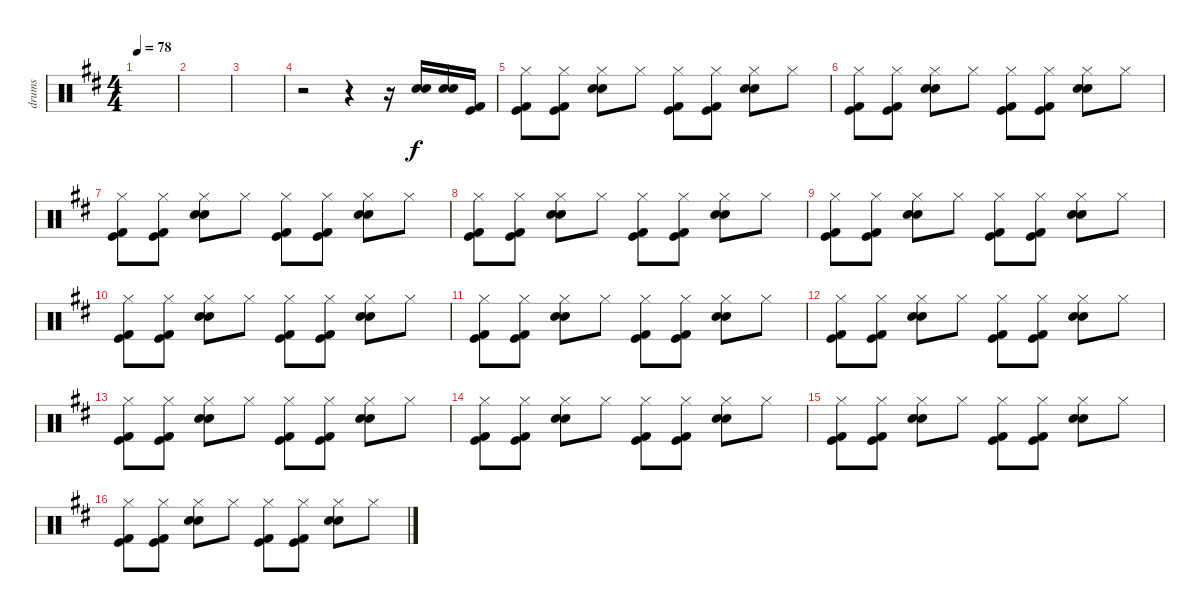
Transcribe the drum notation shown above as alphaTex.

\track ("drums" "drums") {instrument percussion}
\staff {score}
\articulation defaults
\ts (4 4)
\tempo 78
\clef neutral
\ks d
|
|
|
r.2 r.4 r.16 ("Snare (hit) 2" "Electric Snare (hit)").16 ("Snare (hit) 2" "Electric Snare (hit)").16 ("Kick (hit) 2" "Kick (hit)").16 |
("Kick (hit)" "Kick (hit) 2" "Hi-Hat (closed)").8 ("Kick (hit)" "Kick (hit) 2" "Hi-Hat (closed)").8 ("Electric Snare (hit)" "Snare (hit) 2" "Hi-Hat (closed)").8 "Hi-Hat (closed)".8 ("Kick (hit)" "Kick (hit) 2" "Hi-Hat (closed)").8 ("Kick (hit)" "Kick (hit) 2" "Hi-Hat (closed)").8 ("Electric Snare (hit)" "Snare (hit) 2" "Hi-Hat (closed)").8 "Hi-Hat (closed)".8 |
("Kick (hit)" "Kick (hit) 2" "Hi-Hat (closed)").8 ("Kick (hit)" "Kick (hit) 2" "Hi-Hat (closed)").8 ("Electric Snare (hit)" "Snare (hit) 2" "Hi-Hat (closed)").8 "Hi-Hat (closed)".8 ("Kick (hit)" "Kick (hit) 2" "Hi-Hat (closed)").8 ("Kick (hit)" "Kick (hit) 2" "Hi-Hat (closed)").8 ("Electric Snare (hit)" "Snare (hit) 2" "Hi-Hat (closed)").8 "Hi-Hat (closed)".8 |
("Kick (hit)" "Kick (hit) 2" "Hi-Hat (closed)").8 ("Kick (hit)" "Kick (hit) 2" "Hi-Hat (closed)").8 ("Electric Snare (hit)" "Snare (hit) 2" "Hi-Hat (closed)").8 "Hi-Hat (closed)".8 ("Kick (hit)" "Kick (hit) 2" "Hi-Hat (closed)").8 ("Kick (hit)" "Kick (hit) 2" "Hi-Hat (closed)").8 ("Electric Snare (hit)" "Snare (hit) 2" "Hi-Hat (closed)").8 "Hi-Hat (closed)".8 |
("Kick (hit)" "Kick (hit) 2" "Hi-Hat (closed)").8 ("Kick (hit)" "Kick (hit) 2" "Hi-Hat (closed)").8 ("Electric Snare (hit)" "Snare (hit) 2" "Hi-Hat (closed)").8 "Hi-Hat (closed)".8 ("Kick (hit)" "Kick (hit) 2" "Hi-Hat (closed)").8 ("Kick (hit)" "Kick (hit) 2" "Hi-Hat (closed)").8 ("Electric Snare (hit)" "Snare (hit) 2" "Hi-Hat (closed)").8 "Hi-Hat (closed)".8 |
("Kick (hit)" "Kick (hit) 2" "Hi-Hat (closed)").8 ("Kick (hit)" "Kick (hit) 2" "Hi-Hat (closed)").8 ("Electric Snare (hit)" "Snare (hit) 2" "Hi-Hat (closed)").8 "Hi-Hat (closed)".8 ("Kick (hit)" "Kick (hit) 2" "Hi-Hat (closed)").8 ("Kick (hit)" "Kick (hit) 2" "Hi-Hat (closed)").8 ("Electric Snare (hit)" "Snare (hit) 2" "Hi-Hat (closed)").8 "Hi-Hat (closed)".8 |
("Kick (hit)" "Kick (hit) 2" "Hi-Hat (closed)").8 ("Kick (hit)" "Kick (hit) 2" "Hi-Hat (closed)").8 ("Electric Snare (hit)" "Snare (hit) 2" "Hi-Hat (closed)").8 "Hi-Hat (closed)".8 ("Kick (hit)" "Kick (hit) 2" "Hi-Hat (closed)").8 ("Kick (hit)" "Kick (hit) 2" "Hi-Hat (closed)").8 ("Electric Snare (hit)" "Snare (hit) 2" "Hi-Hat (closed)").8 "Hi-Hat (closed)".8 |
("Kick (hit)" "Kick (hit) 2" "Hi-Hat (closed)").8 ("Kick (hit)" "Kick (hit) 2" "Hi-Hat (closed)").8 ("Electric Snare (hit)" "Snare (hit) 2" "Hi-Hat (closed)").8 "Hi-Hat (closed)".8 ("Kick (hit)" "Kick (hit) 2" "Hi-Hat (closed)").8 ("Kick (hit)" "Kick (hit) 2" "Hi-Hat (closed)").8 ("Electric Snare (hit)" "Snare (hit) 2" "Hi-Hat (closed)").8 "Hi-Hat (closed)".8 |
("Kick (hit)" "Kick (hit) 2" "Hi-Hat (closed)").8 ("Kick (hit)" "Kick (hit) 2" "Hi-Hat (closed)").8 ("Electric Snare (hit)" "Snare (hit) 2" "Hi-Hat (closed)").8 "Hi-Hat (closed)".8 ("Kick (hit)" "Kick (hit) 2" "Hi-Hat (closed)").8 ("Kick (hit)" "Kick (hit) 2" "Hi-Hat (closed)").8 ("Electric Snare (hit)" "Snare (hit) 2" "Hi-Hat (closed)").8 "Hi-Hat (closed)".8 |
("Kick (hit)" "Kick (hit) 2" "Hi-Hat (closed)").8 ("Kick (hit)" "Kick (hit) 2" "Hi-Hat (closed)").8 ("Electric Snare (hit)" "Snare (hit) 2" "Hi-Hat (closed)").8 "Hi-Hat (closed)".8 ("Kick (hit)" "Kick (hit) 2" "Hi-Hat (closed)").8 ("Kick (hit)" "Kick (hit) 2" "Hi-Hat (closed)").8 ("Electric Snare (hit)" "Snare (hit) 2" "Hi-Hat (closed)").8 "Hi-Hat (closed)".8 |
("Kick (hit)" "Kick (hit) 2" "Hi-Hat (closed)").8 ("Kick (hit)" "Kick (hit) 2" "Hi-Hat (closed)").8 ("Electric Snare (hit)" "Snare (hit) 2" "Hi-Hat (closed)").8 "Hi-Hat (closed)".8 ("Kick (hit)" "Kick (hit) 2" "Hi-Hat (closed)").8 ("Kick (hit)" "Kick (hit) 2" "Hi-Hat (closed)").8 ("Electric Snare (hit)" "Snare (hit) 2" "Hi-Hat (closed)").8 "Hi-Hat (closed)".8 |
("Kick (hit)" "Kick (hit) 2" "Hi-Hat (closed)").8 ("Kick (hit)" "Kick (hit) 2" "Hi-Hat (closed)").8 ("Electric Snare (hit)" "Snare (hit) 2" "Hi-Hat (closed)").8 "Hi-Hat (closed)".8 ("Kick (hit)" "Kick (hit) 2" "Hi-Hat (closed)").8 ("Kick (hit)" "Kick (hit) 2" "Hi-Hat (closed)").8 ("Electric Snare (hit)" "Snare (hit) 2" "Hi-Hat (closed)").8 "Hi-Hat (closed)".8 |
("Kick (hit)" "Kick (hit) 2" "Hi-Hat (closed)").8 ("Kick (hit)" "Kick (hit) 2" "Hi-Hat (closed)").8 ("Electric Snare (hit)" "Snare (hit) 2" "Hi-Hat (closed)").8 "Hi-Hat (closed)".8 ("Kick (hit)" "Kick (hit) 2" "Hi-Hat (closed)").8 ("Kick (hit)" "Kick (hit) 2" "Hi-Hat (closed)").8 ("Electric Snare (hit)" "Snare (hit) 2" "Hi-Hat (closed)").8 "Hi-Hat (closed)".8
